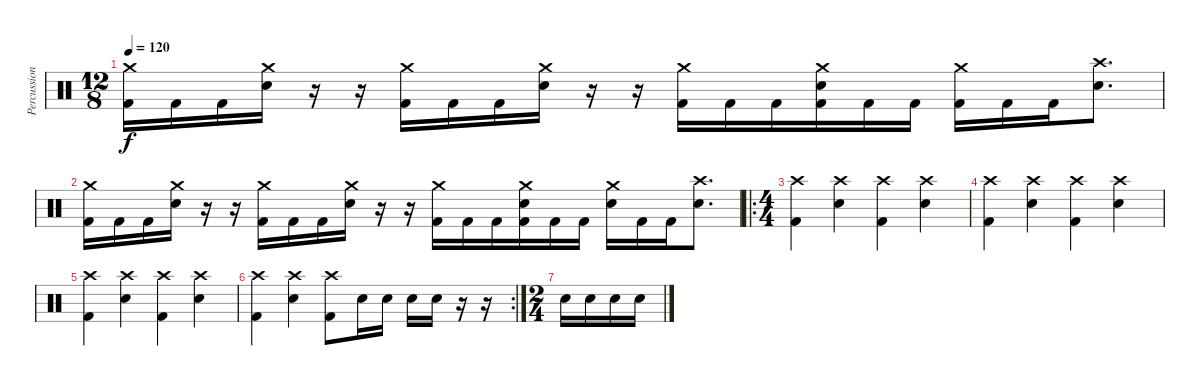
\track ("Percussion" "Percussion") {instrument percussion}
\staff {score}
\articulation defaults
\ts (12 8)
\tempo 120
\clef neutral
\ks c
("Kick (hit) 2" "Crash medium (hit)").16{dy f} "Kick (hit) 2".16 "Kick (hit) 2".16 ("Electric Snare (hit)" "Crash medium (hit)").16 r.16 r.16 ("Kick (hit) 2" "Crash medium (hit)").16 "Kick (hit) 2".16 "Kick (hit) 2".16 ("Electric Snare (hit)" "Crash medium (hit)").16 r.16 r.16 ("Kick (hit) 2" "Crash medium (hit)").16 "Kick (hit) 2".16 "Kick (hit) 2".16 ("Kick (hit) 2" "Electric Snare (hit)" "Crash medium (hit)").16 "Kick (hit) 2".16 "Kick (hit) 2".16 ("Kick (hit) 2" "Crash medium (hit)").16 "Kick (hit) 2".16 "Kick (hit) 2".16 ("Electric Snare (hit)" "Crash high (hit)").8{d} |
("Kick (hit) 2" "Crash medium (hit)").16 "Kick (hit) 2".16 "Kick (hit) 2".16 ("Electric Snare (hit)" "Crash medium (hit)").16 r.16 r.16 ("Kick (hit) 2" "Crash medium (hit)").16 "Kick (hit) 2".16 "Kick (hit) 2".16 ("Electric Snare (hit)" "Crash medium (hit)").16 r.16 r.16 ("Kick (hit) 2" "Crash medium (hit)").16 "Kick (hit) 2".16 "Kick (hit) 2".16 ("Kick (hit) 2" "Electric Snare (hit)" "Crash medium (hit)").16 "Kick (hit) 2".16 "Kick (hit) 2".16 ("Electric Snare (hit)" "Crash medium (hit)").16 "Kick (hit) 2".16 "Kick (hit) 2".16 ("Electric Snare (hit)" "Crash high (hit)").8{d} |
\ro
\ts (4 4)
("Crash high (hit)" "Kick (hit) 2").4 ("Crash high (hit)" "Electric Snare (hit)").4 ("Crash high (hit)" "Kick (hit) 2").4 ("Crash high (hit)" "Electric Snare (hit)").4 |
("Crash high (hit)" "Kick (hit) 2").4 ("Crash high (hit)" "Electric Snare (hit)").4 ("Crash high (hit)" "Kick (hit) 2").4 ("Crash high (hit)" "Electric Snare (hit)").4 |
("Crash high (hit)" "Kick (hit) 2").4 ("Crash high (hit)" "Electric Snare (hit)").4 ("Crash high (hit)" "Kick (hit) 2").4 ("Crash high (hit)" "Electric Snare (hit)").4 |
\rc 2
("Crash high (hit)" "Kick (hit) 2").4 ("Crash high (hit)" "Electric Snare (hit)").4 ("Crash high (hit)" "Kick (hit) 2").8 "Electric Snare (hit)".16 "Electric Snare (hit)".16 "Electric Snare (hit)".16 "Electric Snare (hit)".16 r.16 r.16 |
\ts (2 4)
"Electric Snare (hit)".16 "Electric Snare (hit)".16 "Electric Snare (hit)".16 "Electric Snare (hit)".16
